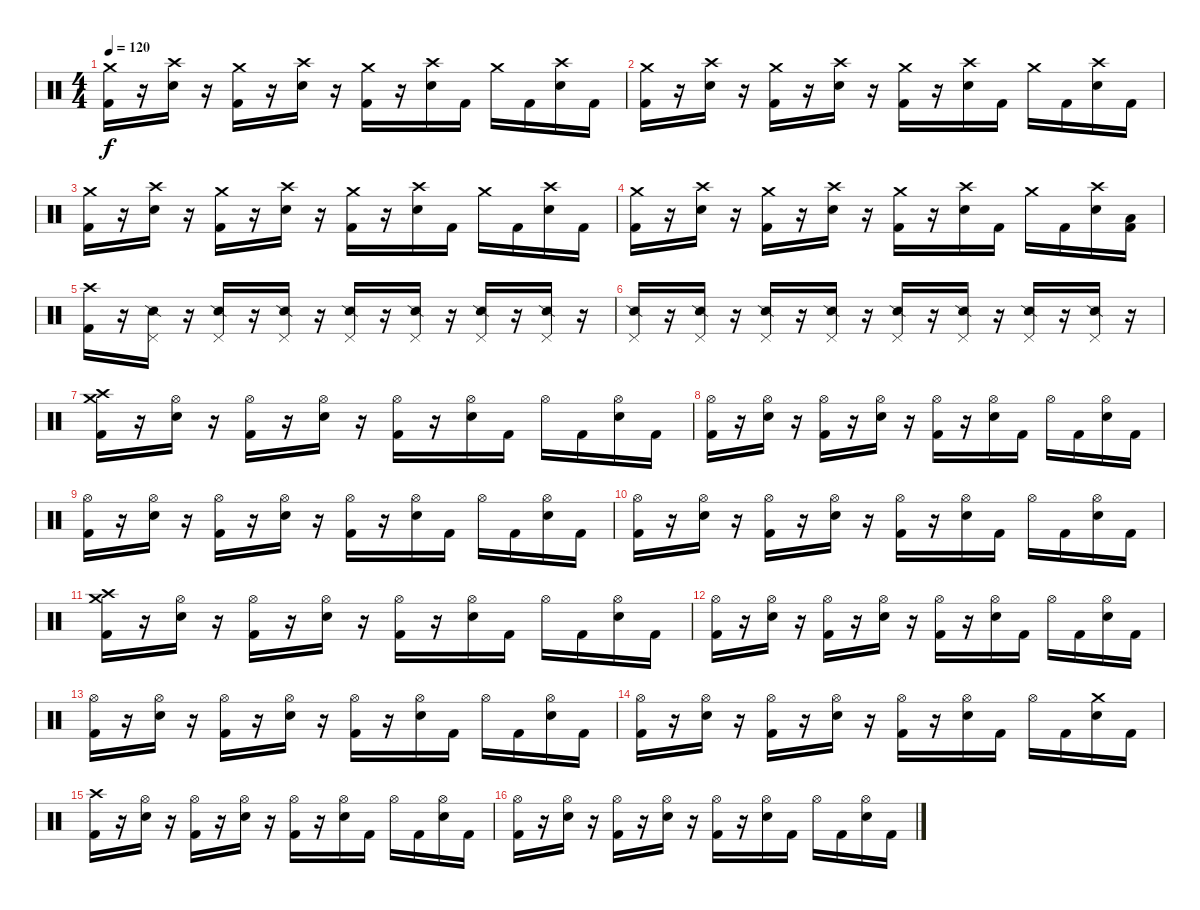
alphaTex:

\track "" {instrument percussion}
\staff {score}
\articulation defaults
\ts (4 4)
\tempo 120
\clef neutral
\ks c
("Crash medium (hit)" "Kick (hit) 2").16{dy f} r.16 ("Crash high (hit)" "Electric Snare (hit)").16 r.16 ("Crash medium (hit)" "Kick (hit) 2").16 r.16 ("Crash high (hit)" "Electric Snare (hit)").16 r.16 ("Crash medium (hit)" "Kick (hit) 2").16 r.16 ("Crash high (hit)" "Electric Snare (hit)").16 "Kick (hit) 2".16 "Crash medium (hit)".16 "Kick (hit) 2".16 ("Crash high (hit)" "Electric Snare (hit)").16 "Kick (hit) 2".16 |
("Crash medium (hit)" "Kick (hit) 2").16 r.16 ("Crash high (hit)" "Electric Snare (hit)").16 r.16 ("Crash medium (hit)" "Kick (hit) 2").16 r.16 ("Crash high (hit)" "Electric Snare (hit)").16 r.16 ("Crash medium (hit)" "Kick (hit) 2").16 r.16 ("Crash high (hit)" "Electric Snare (hit)").16 "Kick (hit) 2".16 "Crash medium (hit)".16 "Kick (hit) 2".16 ("Crash high (hit)" "Electric Snare (hit)").16 "Kick (hit) 2".16 |
("Crash medium (hit)" "Kick (hit) 2").16 r.16 ("Crash high (hit)" "Electric Snare (hit)").16 r.16 ("Crash medium (hit)" "Kick (hit) 2").16 r.16 ("Crash high (hit)" "Electric Snare (hit)").16 r.16 ("Crash medium (hit)" "Kick (hit) 2").16 r.16 ("Crash high (hit)" "Electric Snare (hit)").16 "Kick (hit) 2".16 "Crash medium (hit)".16 "Kick (hit) 2".16 ("Crash high (hit)" "Electric Snare (hit)").16 "Kick (hit) 2".16 |
("Crash medium (hit)" "Kick (hit) 2").16 r.16 ("Crash high (hit)" "Electric Snare (hit)").16 r.16 ("Crash medium (hit)" "Kick (hit) 2").16 r.16 ("Crash high (hit)" "Electric Snare (hit)").16 r.16 ("Crash medium (hit)" "Kick (hit) 2").16 r.16 ("Crash high (hit)" "Electric Snare (hit)").16 "Kick (hit) 2".16 "Crash medium (hit)".16 "Kick (hit) 2".16 ("Crash high (hit)" "Electric Snare (hit)").16 ("Low Tom (hit)" "Kick (hit) 2").16 |
("Crash high (hit)" "Kick (hit) 2").16 r.16 ("Pedal Hi-Hat (hit)" "Snare (side stick) 2").16 r.16 ("Pedal Hi-Hat (hit)" "Snare (side stick) 2").16 r.16 ("Pedal Hi-Hat (hit)" "Snare (side stick) 2").16 r.16 ("Pedal Hi-Hat (hit)" "Snare (side stick) 2").16 r.16 ("Pedal Hi-Hat (hit)" "Snare (side stick) 2").16 r.16 ("Pedal Hi-Hat (hit)" "Snare (side stick) 2").16 r.16 ("Pedal Hi-Hat (hit)" "Snare (side stick) 2").16 r.16 |
("Pedal Hi-Hat (hit)" "Snare (side stick) 2").16 r.16 ("Pedal Hi-Hat (hit)" "Snare (side stick) 2").16 r.16 ("Pedal Hi-Hat (hit)" "Snare (side stick) 2").16 r.16 ("Pedal Hi-Hat (hit)" "Snare (side stick) 2").16 r.16 ("Pedal Hi-Hat (hit)" "Snare (side stick) 2").16 r.16 ("Pedal Hi-Hat (hit)" "Snare (side stick) 2").16 r.16 ("Pedal Hi-Hat (hit)" "Snare (side stick) 2").16 r.16 ("Pedal Hi-Hat (hit)" "Snare (side stick) 2").16 r.16 |
("Crash high (hit)" "Crash medium (hit)" "Kick (hit) 2").16 r.16 ("Hi-Hat (open)" "Electric Snare (hit)").16 r.16 ("Hi-Hat (open)" "Kick (hit) 2").16 r.16 ("Hi-Hat (open)" "Electric Snare (hit)").16 r.16 ("Hi-Hat (open)" "Kick (hit) 2").16 r.16 ("Hi-Hat (open)" "Electric Snare (hit)").16 "Kick (hit) 2".16 "Hi-Hat (open)".16 "Kick (hit) 2".16 ("Hi-Hat (open)" "Electric Snare (hit)").16 "Kick (hit) 2".16 |
("Hi-Hat (open)" "Kick (hit) 2").16 r.16 ("Hi-Hat (open)" "Electric Snare (hit)").16 r.16 ("Hi-Hat (open)" "Kick (hit) 2").16 r.16 ("Hi-Hat (open)" "Electric Snare (hit)").16 r.16 ("Hi-Hat (open)" "Kick (hit) 2").16 r.16 ("Hi-Hat (open)" "Electric Snare (hit)").16 "Kick (hit) 2".16 "Hi-Hat (open)".16 "Kick (hit) 2".16 ("Hi-Hat (open)" "Electric Snare (hit)").16 "Kick (hit) 2".16 |
("Hi-Hat (open)" "Kick (hit) 2").16 r.16 ("Hi-Hat (open)" "Electric Snare (hit)").16 r.16 ("Hi-Hat (open)" "Kick (hit) 2").16 r.16 ("Hi-Hat (open)" "Electric Snare (hit)").16 r.16 ("Hi-Hat (open)" "Kick (hit) 2").16 r.16 ("Hi-Hat (open)" "Electric Snare (hit)").16 "Kick (hit) 2".16 "Hi-Hat (open)".16 "Kick (hit) 2".16 ("Hi-Hat (open)" "Electric Snare (hit)").16 "Kick (hit) 2".16 |
("Hi-Hat (open)" "Kick (hit) 2").16 r.16 ("Hi-Hat (open)" "Electric Snare (hit)").16 r.16 ("Hi-Hat (open)" "Kick (hit) 2").16 r.16 ("Hi-Hat (open)" "Electric Snare (hit)").16 r.16 ("Hi-Hat (open)" "Kick (hit) 2").16 r.16 ("Hi-Hat (open)" "Electric Snare (hit)").16 "Kick (hit) 2".16 "Hi-Hat (open)".16 "Kick (hit) 2".16 ("Hi-Hat (open)" "Electric Snare (hit)").16 "Kick (hit) 2".16 |
("Crash high (hit)" "Crash medium (hit)" "Kick (hit) 2").16 r.16 ("Hi-Hat (open)" "Electric Snare (hit)").16 r.16 ("Hi-Hat (open)" "Kick (hit) 2").16 r.16 ("Hi-Hat (open)" "Electric Snare (hit)").16 r.16 ("Hi-Hat (open)" "Kick (hit) 2").16 r.16 ("Hi-Hat (open)" "Electric Snare (hit)").16 "Kick (hit) 2".16 "Hi-Hat (open)".16 "Kick (hit) 2".16 ("Hi-Hat (open)" "Electric Snare (hit)").16 "Kick (hit) 2".16 |
("Hi-Hat (open)" "Kick (hit) 2").16 r.16 ("Hi-Hat (open)" "Electric Snare (hit)").16 r.16 ("Hi-Hat (open)" "Kick (hit) 2").16 r.16 ("Hi-Hat (open)" "Electric Snare (hit)").16 r.16 ("Hi-Hat (open)" "Kick (hit) 2").16 r.16 ("Hi-Hat (open)" "Electric Snare (hit)").16 "Kick (hit) 2".16 "Hi-Hat (open)".16 "Kick (hit) 2".16 ("Hi-Hat (open)" "Electric Snare (hit)").16 "Kick (hit) 2".16 |
("Hi-Hat (open)" "Kick (hit) 2").16 r.16 ("Hi-Hat (open)" "Electric Snare (hit)").16 r.16 ("Hi-Hat (open)" "Kick (hit) 2").16 r.16 ("Hi-Hat (open)" "Electric Snare (hit)").16 r.16 ("Hi-Hat (open)" "Kick (hit) 2").16 r.16 ("Hi-Hat (open)" "Electric Snare (hit)").16 "Kick (hit) 2".16 "Hi-Hat (open)".16 "Kick (hit) 2".16 ("Hi-Hat (open)" "Electric Snare (hit)").16 "Kick (hit) 2".16 |
("Hi-Hat (open)" "Kick (hit) 2").16 r.16 ("Hi-Hat (open)" "Electric Snare (hit)").16 r.16 ("Hi-Hat (open)" "Kick (hit) 2").16 r.16 ("Hi-Hat (open)" "Electric Snare (hit)").16 r.16 ("Hi-Hat (open)" "Kick (hit) 2").16 r.16 ("Hi-Hat (open)" "Electric Snare (hit)").16 "Kick (hit) 2".16 "Hi-Hat (open)".16 "Kick (hit) 2".16 ("Crash medium (hit)" "Electric Snare (hit)").16 "Kick (hit) 2".16 |
("Crash high (hit)" "Kick (hit) 2").16 r.16 ("Hi-Hat (open)" "Electric Snare (hit)").16 r.16 ("Hi-Hat (open)" "Kick (hit) 2").16 r.16 ("Hi-Hat (open)" "Electric Snare (hit)").16 r.16 ("Hi-Hat (open)" "Kick (hit) 2").16 r.16 ("Hi-Hat (open)" "Electric Snare (hit)").16 "Kick (hit) 2".16 "Hi-Hat (open)".16 "Kick (hit) 2".16 ("Hi-Hat (open)" "Electric Snare (hit)").16 "Kick (hit) 2".16 |
("Hi-Hat (open)" "Kick (hit) 2").16 r.16 ("Hi-Hat (open)" "Electric Snare (hit)").16 r.16 ("Hi-Hat (open)" "Kick (hit) 2").16 r.16 ("Hi-Hat (open)" "Electric Snare (hit)").16 r.16 ("Hi-Hat (open)" "Kick (hit) 2").16 r.16 ("Hi-Hat (open)" "Electric Snare (hit)").16 "Kick (hit) 2".16 "Hi-Hat (open)".16 "Kick (hit) 2".16 ("Hi-Hat (open)" "Electric Snare (hit)").16 "Kick (hit) 2".16
